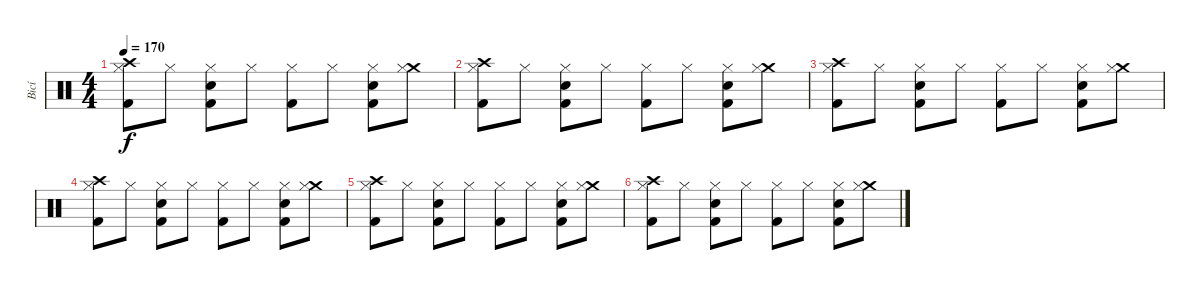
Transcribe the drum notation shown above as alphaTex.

\track ("Bicí" "Bicí") {instrument percussion}
\staff {score}
\articulation defaults
\ts (4 4)
\tempo 170
\clef neutral
\ks c
("Crash high (hit)" "Hi-Hat (closed)" "Kick (hit) 2").8{dy f} "Hi-Hat (closed)".8 ("Hi-Hat (closed)" "Snare (hit) 2" "Kick (hit) 2").8 "Hi-Hat (closed)".8 ("Hi-Hat (closed)" "Kick (hit) 2").8 "Hi-Hat (closed)".8 ("Hi-Hat (closed)" "Snare (hit) 2" "Kick (hit) 2").8 ("Crash medium (hit)" "Hi-Hat (closed)").8 |
("Crash high (hit)" "Hi-Hat (closed)" "Kick (hit) 2").8 "Hi-Hat (closed)".8 ("Hi-Hat (closed)" "Snare (hit) 2" "Kick (hit) 2").8 "Hi-Hat (closed)".8 ("Hi-Hat (closed)" "Kick (hit) 2").8 "Hi-Hat (closed)".8 ("Hi-Hat (closed)" "Snare (hit) 2" "Kick (hit) 2").8 ("Crash medium (hit)" "Hi-Hat (closed)").8 |
("Crash high (hit)" "Hi-Hat (closed)" "Kick (hit) 2").8 "Hi-Hat (closed)".8 ("Hi-Hat (closed)" "Snare (hit) 2" "Kick (hit) 2").8 "Hi-Hat (closed)".8 ("Hi-Hat (closed)" "Kick (hit) 2").8 "Hi-Hat (closed)".8 ("Hi-Hat (closed)" "Snare (hit) 2" "Kick (hit) 2").8 ("Crash medium (hit)" "Hi-Hat (closed)").8 |
("Crash high (hit)" "Hi-Hat (closed)" "Kick (hit) 2").8 "Hi-Hat (closed)".8 ("Hi-Hat (closed)" "Snare (hit) 2" "Kick (hit) 2").8 "Hi-Hat (closed)".8 ("Hi-Hat (closed)" "Kick (hit) 2").8 "Hi-Hat (closed)".8 ("Hi-Hat (closed)" "Snare (hit) 2" "Kick (hit) 2").8 ("Crash medium (hit)" "Hi-Hat (closed)").8 |
("Crash high (hit)" "Hi-Hat (closed)" "Kick (hit) 2").8 "Hi-Hat (closed)".8 ("Hi-Hat (closed)" "Snare (hit) 2" "Kick (hit) 2").8 "Hi-Hat (closed)".8 ("Hi-Hat (closed)" "Kick (hit) 2").8 "Hi-Hat (closed)".8 ("Hi-Hat (closed)" "Snare (hit) 2" "Kick (hit) 2").8 ("Crash medium (hit)" "Hi-Hat (closed)").8 |
("Crash high (hit)" "Hi-Hat (closed)" "Kick (hit) 2").8 "Hi-Hat (closed)".8 ("Hi-Hat (closed)" "Snare (hit) 2" "Kick (hit) 2").8 "Hi-Hat (closed)".8 ("Hi-Hat (closed)" "Kick (hit) 2").8 "Hi-Hat (closed)".8 ("Hi-Hat (closed)" "Snare (hit) 2" "Kick (hit) 2").8 ("Crash medium (hit)" "Hi-Hat (closed)").8
